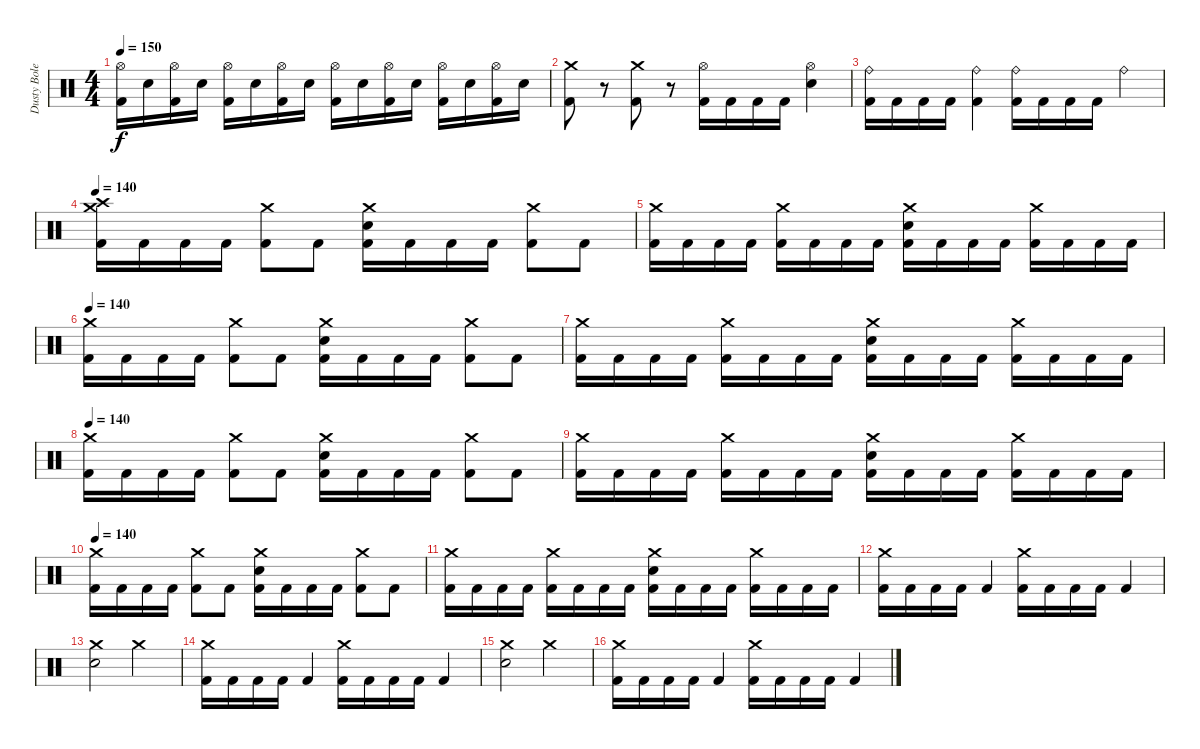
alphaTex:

\track ("Dusty Boles" "Dusty Bole") {instrument percussion}
\staff {score}
\articulation defaults
\ts (4 4)
\tempo 150
\clef neutral
\ks c
("Hi-Hat (open)" "Kick (hit) 2").16{dy f} "Electric Snare (hit)".16 ("Hi-Hat (open)" "Kick (hit) 2").16 "Electric Snare (hit)".16 ("Hi-Hat (open)" "Kick (hit) 2").16 "Electric Snare (hit)".16 ("Hi-Hat (open)" "Kick (hit) 2").16 "Electric Snare (hit)".16 ("Hi-Hat (open)" "Kick (hit) 2").16 "Electric Snare (hit)".16 ("Hi-Hat (open)" "Kick (hit) 2").16 "Electric Snare (hit)".16 ("Hi-Hat (open)" "Kick (hit) 2").16 "Electric Snare (hit)".16 ("Hi-Hat (open)" "Kick (hit) 2").16 "Electric Snare (hit)".16 |
("Crash medium (hit)" "Kick (hit) 2").8 r.8{volume 0} ("Crash medium (hit)" "Kick (hit) 2").8{volume 16} r.8{volume 0} ("Hi-Hat (open)" "Kick (hit) 2").16{volume 16} "Kick (hit) 2".16 "Kick (hit) 2".16 "Kick (hit) 2".16 ("Hi-Hat (open)" "Electric Snare (hit)").4 |
("Ride (bell)" "Kick (hit) 2").16 "Kick (hit) 2".16 "Kick (hit) 2".16 "Kick (hit) 2".16 ("Ride (bell)" "Kick (hit) 2").4 ("Ride (bell)" "Kick (hit) 2").16 "Kick (hit) 2".16 "Kick (hit) 2".16 "Kick (hit) 2".16 "Ride (bell)".4 |
\tempo 140
("Crash high (hit)" "Crash medium (hit)" "Kick (hit) 2").16 "Kick (hit) 2".16 "Kick (hit) 2".16 "Kick (hit) 2".16 ("Crash medium (hit)" "Kick (hit) 2").8 "Kick (hit) 2".8 ("Crash medium (hit)" "Electric Snare (hit)" "Kick (hit) 2").16 "Kick (hit) 2".16 "Kick (hit) 2".16 "Kick (hit) 2".16 ("Crash medium (hit)" "Kick (hit) 2").8 "Kick (hit) 2".8 |
("Crash medium (hit)" "Kick (hit) 2").16 "Kick (hit) 2".16 "Kick (hit) 2".16 "Kick (hit) 2".16 ("Crash medium (hit)" "Kick (hit) 2").16 "Kick (hit) 2".16 "Kick (hit) 2".16 "Kick (hit) 2".16 ("Crash medium (hit)" "Electric Snare (hit)" "Kick (hit) 2").16 "Kick (hit) 2".16 "Kick (hit) 2".16 "Kick (hit) 2".16 ("Crash medium (hit)" "Kick (hit) 2").16 "Kick (hit) 2".16 "Kick (hit) 2".16 "Kick (hit) 2".16 |
\tempo 140
("Crash medium (hit)" "Kick (hit) 2").16 "Kick (hit) 2".16 "Kick (hit) 2".16 "Kick (hit) 2".16 ("Crash medium (hit)" "Kick (hit) 2").8 "Kick (hit) 2".8 ("Crash medium (hit)" "Electric Snare (hit)" "Kick (hit) 2").16 "Kick (hit) 2".16 "Kick (hit) 2".16 "Kick (hit) 2".16 ("Crash medium (hit)" "Kick (hit) 2").8 "Kick (hit) 2".8 |
("Crash medium (hit)" "Kick (hit) 2").16 "Kick (hit) 2".16 "Kick (hit) 2".16 "Kick (hit) 2".16 ("Crash medium (hit)" "Kick (hit) 2").16 "Kick (hit) 2".16 "Kick (hit) 2".16 "Kick (hit) 2".16 ("Crash medium (hit)" "Electric Snare (hit)" "Kick (hit) 2").16 "Kick (hit) 2".16 "Kick (hit) 2".16 "Kick (hit) 2".16 ("Crash medium (hit)" "Kick (hit) 2").16 "Kick (hit) 2".16 "Kick (hit) 2".16 "Kick (hit) 2".16 |
\tempo 140
("Crash medium (hit)" "Kick (hit) 2").16 "Kick (hit) 2".16 "Kick (hit) 2".16 "Kick (hit) 2".16 ("Crash medium (hit)" "Kick (hit) 2").8 "Kick (hit) 2".8 ("Crash medium (hit)" "Electric Snare (hit)" "Kick (hit) 2").16 "Kick (hit) 2".16 "Kick (hit) 2".16 "Kick (hit) 2".16 ("Crash medium (hit)" "Kick (hit) 2").8 "Kick (hit) 2".8 |
("Crash medium (hit)" "Kick (hit) 2").16 "Kick (hit) 2".16 "Kick (hit) 2".16 "Kick (hit) 2".16 ("Crash medium (hit)" "Kick (hit) 2").16 "Kick (hit) 2".16 "Kick (hit) 2".16 "Kick (hit) 2".16 ("Crash medium (hit)" "Electric Snare (hit)" "Kick (hit) 2").16 "Kick (hit) 2".16 "Kick (hit) 2".16 "Kick (hit) 2".16 ("Crash medium (hit)" "Kick (hit) 2").16 "Kick (hit) 2".16 "Kick (hit) 2".16 "Kick (hit) 2".16 |
\tempo 140
("Crash medium (hit)" "Kick (hit) 2").16 "Kick (hit) 2".16 "Kick (hit) 2".16 "Kick (hit) 2".16 ("Crash medium (hit)" "Kick (hit) 2").8 "Kick (hit) 2".8 ("Crash medium (hit)" "Electric Snare (hit)" "Kick (hit) 2").16 "Kick (hit) 2".16 "Kick (hit) 2".16 "Kick (hit) 2".16 ("Crash medium (hit)" "Kick (hit) 2").8 "Kick (hit) 2".8 |
("Crash medium (hit)" "Kick (hit) 2").16 "Kick (hit) 2".16 "Kick (hit) 2".16 "Kick (hit) 2".16 ("Crash medium (hit)" "Kick (hit) 2").16 "Kick (hit) 2".16 "Kick (hit) 2".16 "Kick (hit) 2".16 ("Crash medium (hit)" "Electric Snare (hit)" "Kick (hit) 2").16 "Kick (hit) 2".16 "Kick (hit) 2".16 "Kick (hit) 2".16 ("Crash medium (hit)" "Kick (hit) 2").16 "Kick (hit) 2".16 "Kick (hit) 2".16 "Kick (hit) 2".16 |
("Crash medium (hit)" "Kick (hit) 2").16 "Kick (hit) 2".16 "Kick (hit) 2".16 "Kick (hit) 2".16 "Kick (hit) 2".4 ("Crash medium (hit)" "Kick (hit) 2").16 "Kick (hit) 2".16 "Kick (hit) 2".16 "Kick (hit) 2".16 "Kick (hit) 2".4 |
("Crash medium (hit)" "Electric Snare (hit)").2 "Crash medium (hit)".2 |
("Crash medium (hit)" "Kick (hit) 2").16 "Kick (hit) 2".16 "Kick (hit) 2".16 "Kick (hit) 2".16 "Kick (hit) 2".4 ("Crash medium (hit)" "Kick (hit) 2").16 "Kick (hit) 2".16 "Kick (hit) 2".16 "Kick (hit) 2".16 "Kick (hit) 2".4 |
("Crash medium (hit)" "Electric Snare (hit)").2 "Crash medium (hit)".2 |
("Crash medium (hit)" "Kick (hit) 2").16 "Kick (hit) 2".16 "Kick (hit) 2".16 "Kick (hit) 2".16 "Kick (hit) 2".4 ("Crash medium (hit)" "Kick (hit) 2").16 "Kick (hit) 2".16 "Kick (hit) 2".16 "Kick (hit) 2".16 "Kick (hit) 2".4
